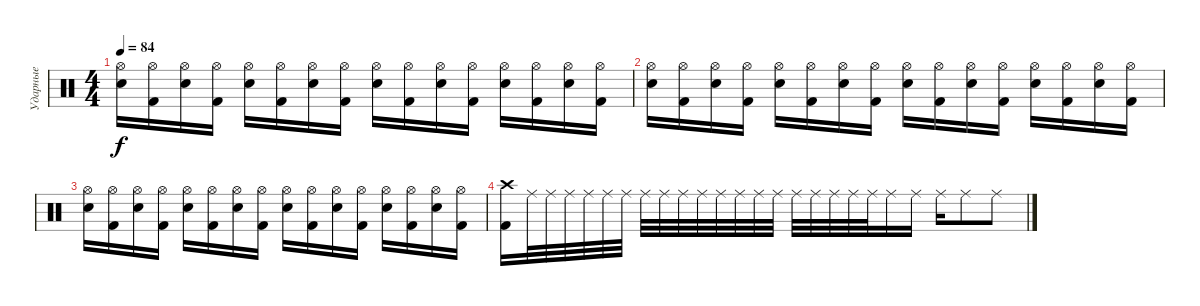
\track ("Ударные" "Ударные") {instrument percussion}
\staff {score}
\articulation defaults
\ts (4 4)
\tempo 84
\clef neutral
\ks c
("Hi-Hat (open)" "Snare (hit) 2").16{dy f} ("Hi-Hat (open)" "Kick (hit) 2").16 ("Hi-Hat (open)" "Snare (hit) 2").16 ("Hi-Hat (open)" "Kick (hit) 2").16 ("Hi-Hat (open)" "Snare (hit) 2").16 ("Hi-Hat (open)" "Kick (hit) 2").16 ("Hi-Hat (open)" "Snare (hit) 2").16 ("Hi-Hat (open)" "Kick (hit) 2").16 ("Hi-Hat (open)" "Snare (hit) 2").16 ("Hi-Hat (open)" "Kick (hit) 2").16 ("Hi-Hat (open)" "Snare (hit) 2").16 ("Hi-Hat (open)" "Kick (hit) 2").16 ("Hi-Hat (open)" "Snare (hit) 2").16 ("Hi-Hat (open)" "Kick (hit) 2").16 ("Hi-Hat (open)" "Snare (hit) 2").16 ("Hi-Hat (open)" "Kick (hit) 2").16 |
("Hi-Hat (open)" "Snare (hit) 2").16 ("Hi-Hat (open)" "Kick (hit) 2").16 ("Hi-Hat (open)" "Snare (hit) 2").16 ("Hi-Hat (open)" "Kick (hit) 2").16 ("Hi-Hat (open)" "Snare (hit) 2").16 ("Hi-Hat (open)" "Kick (hit) 2").16 ("Hi-Hat (open)" "Snare (hit) 2").16 ("Hi-Hat (open)" "Kick (hit) 2").16 ("Hi-Hat (open)" "Snare (hit) 2").16 ("Hi-Hat (open)" "Kick (hit) 2").16 ("Hi-Hat (open)" "Snare (hit) 2").16 ("Hi-Hat (open)" "Kick (hit) 2").16 ("Hi-Hat (open)" "Snare (hit) 2").16 ("Hi-Hat (open)" "Kick (hit) 2").16 ("Hi-Hat (open)" "Snare (hit) 2").16 ("Hi-Hat (open)" "Kick (hit) 2").16 |
("Hi-Hat (open)" "Snare (hit) 2").16 ("Hi-Hat (open)" "Kick (hit) 2").16 ("Hi-Hat (open)" "Snare (hit) 2").16 ("Hi-Hat (open)" "Kick (hit) 2").16 ("Hi-Hat (open)" "Snare (hit) 2").16 ("Hi-Hat (open)" "Kick (hit) 2").16 ("Hi-Hat (open)" "Snare (hit) 2").16 ("Hi-Hat (open)" "Kick (hit) 2").16 ("Hi-Hat (open)" "Snare (hit) 2").16 ("Hi-Hat (open)" "Kick (hit) 2").16 ("Hi-Hat (open)" "Snare (hit) 2").16 ("Hi-Hat (open)" "Kick (hit) 2").16 ("Hi-Hat (open)" "Snare (hit) 2").16 ("Hi-Hat (open)" "Kick (hit) 2").16 ("Hi-Hat (open)" "Snare (hit) 2").16 ("Hi-Hat (open)" "Kick (hit) 2").16 |
("Crash high (hit)" "Kick (hit) 2").16 "Ride (middle)".32 "Ride (middle)".32 "Ride (middle)".32 "Ride (middle)".32 "Ride (middle)".32 "Ride (middle)".32 "Ride (middle)".32 "Ride (middle)".32 "Ride (middle)".32 "Ride (middle)".32 "Ride (middle)".32 "Ride (middle)".32 "Ride (middle)".32 "Ride (middle)".32 "Ride (middle)".32 "Ride (middle)".32 "Ride (middle)".32 "Ride (middle)".32 "Ride (middle)".32 "Ride (middle)".16 "Ride (middle)".16 "Ride (middle)".16 "Ride (middle)".8 "Ride (middle)".8
